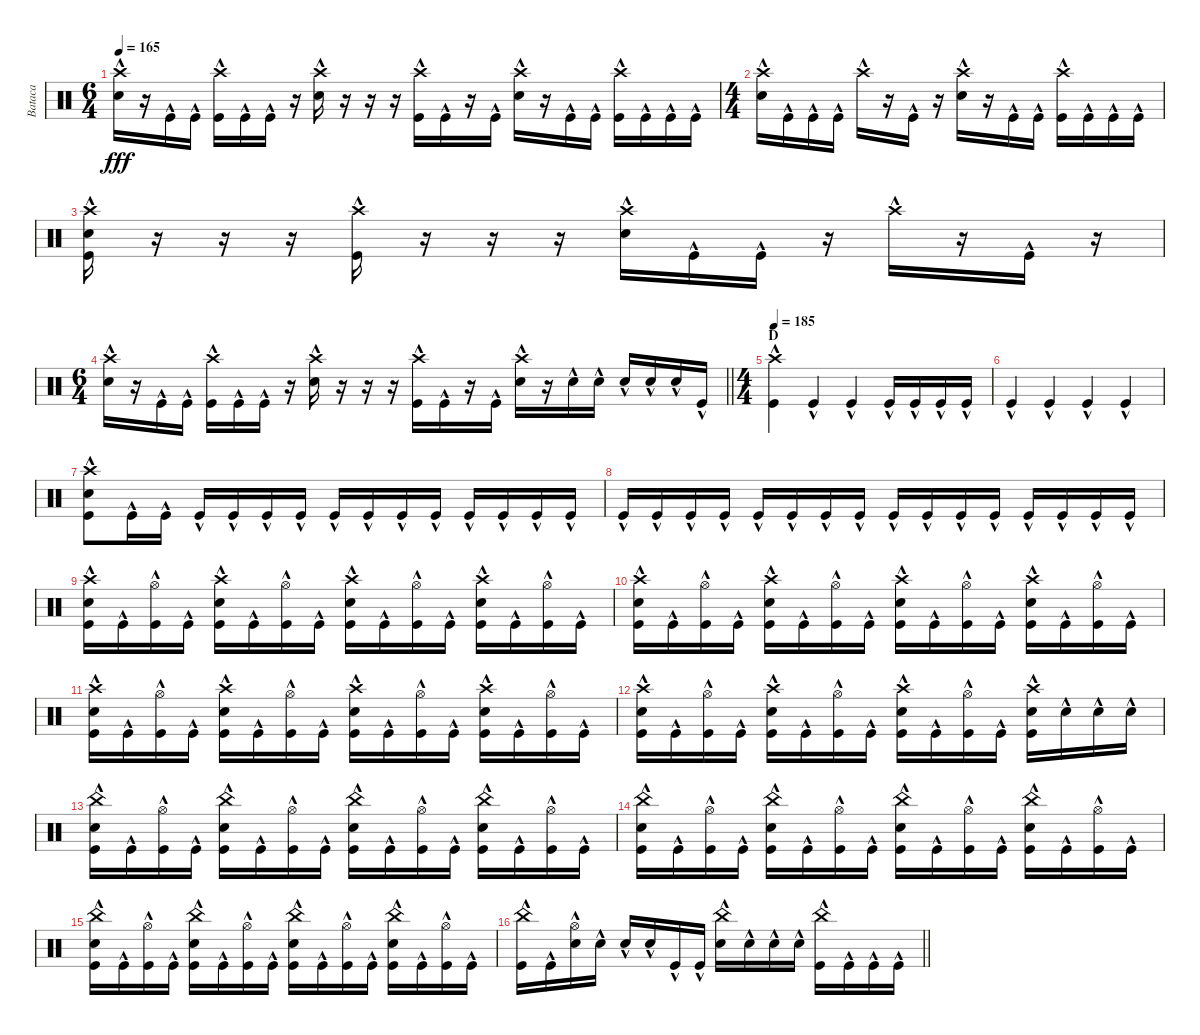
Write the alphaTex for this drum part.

\track ("Bataca" "Bataca") {instrument percussion}
\staff {score}
\articulation defaults
\ts (6 4)
\tempo 165
\clef neutral
\ks c
("Crash high (hit)"{hac} "Electric Snare (hit)"{hac}).16{dy fff} r.16 "Kick (hit)"{hac}.16 "Kick (hit)"{hac}.16 ("Crash high (hit)"{hac} "Kick (hit)"{hac}).16 "Kick (hit)"{hac}.16 "Kick (hit)"{hac}.16 r.16 ("Crash high (hit)"{hac} "Electric Snare (hit)"{hac}).16 r.16 r.16 r.16 ("Crash high (hit)"{hac} "Kick (hit)"{hac}).16 "Kick (hit)"{hac}.16 r.16 "Kick (hit)"{hac}.16 ("Crash high (hit)"{hac} "Electric Snare (hit)"{hac}).16 r.16 "Kick (hit)"{hac}.16 "Kick (hit)"{hac}.16 ("Crash high (hit)"{hac} "Kick (hit)"{hac}).16 "Kick (hit)"{hac}.16 "Kick (hit)"{hac}.16 "Kick (hit)"{hac}.16 |
\ts (4 4)
("Crash high (hit)"{hac} "Electric Snare (hit)"{hac}).16 "Kick (hit)"{hac}.16 "Kick (hit)"{hac}.16 "Kick (hit)"{hac}.16 "Crash high (hit)"{hac}.16 r.16 "Kick (hit)"{hac}.16 r.16 ("Crash high (hit)"{hac} "Electric Snare (hit)"{hac}).16 r.16 "Kick (hit)"{hac}.16 "Kick (hit)"{hac}.16 ("Crash high (hit)"{hac} "Kick (hit)"{hac}).16 "Kick (hit)"{hac}.16 "Kick (hit)"{hac}.16 "Kick (hit)"{hac}.16 |
("Crash high (hit)"{hac} "Electric Snare (hit)"{hac} "Kick (hit)"{hac}).16 r.16 r.16 r.16 ("Crash high (hit)"{hac} "Kick (hit)"{hac}).16 r.16 r.16 r.16 ("Crash high (hit)"{hac} "Electric Snare (hit)"{hac}).16 "Kick (hit)"{hac}.16 "Kick (hit)"{hac}.16 r.16 "Crash high (hit)"{hac}.16 r.16 "Kick (hit)"{hac}.16 r.16 |
\ts (6 4)
\barLineRight lightlight
("Crash high (hit)"{hac} "Electric Snare (hit)"{hac}).16 r.16 "Kick (hit)"{hac}.16 "Kick (hit)"{hac}.16 ("Crash high (hit)"{hac} "Kick (hit)"{hac}).16 "Kick (hit)"{hac}.16 "Kick (hit)"{hac}.16 r.16 ("Crash high (hit)"{hac} "Electric Snare (hit)"{hac}).16 r.16 r.16 r.16 ("Crash high (hit)"{hac} "Kick (hit)"{hac}).16 "Kick (hit)"{hac}.16 r.16 "Kick (hit)"{hac}.16 ("Crash high (hit)"{hac} "Electric Snare (hit)"{hac}).16 r.16 "Electric Snare (hit)"{hac}.16 "Electric Snare (hit)"{hac}.16 "Electric Snare (hit)"{hac}.16 "Electric Snare (hit)"{hac}.16 "Electric Snare (hit)"{hac}.16 "Kick (hit)"{hac}.16 |
\ts (4 4)
\section ("" "D")
\tempo 185
("Crash high (hit)"{hac} "Kick (hit)"{hac}).4 "Kick (hit)"{hac}.4 "Kick (hit)"{hac}.4 "Kick (hit)"{hac}.16 "Kick (hit)"{hac}.16 "Kick (hit)"{hac}.16 "Kick (hit)"{hac}.16 |
"Kick (hit)"{hac}.4 "Kick (hit)"{hac}.4 "Kick (hit)"{hac}.4 "Kick (hit)"{hac}.4 |
("Crash high (hit)"{hac} "Electric Snare (hit)"{hac} "Kick (hit)"{hac}).8 "Kick (hit)"{hac}.16 "Kick (hit)"{hac}.16 "Kick (hit)"{hac}.16 "Kick (hit)"{hac}.16 "Kick (hit)"{hac}.16 "Kick (hit)"{hac}.16 "Kick (hit)"{hac}.16 "Kick (hit)"{hac}.16 "Kick (hit)"{hac}.16 "Kick (hit)"{hac}.16 "Kick (hit)"{hac}.16 "Kick (hit)"{hac}.16 "Kick (hit)"{hac}.16 "Kick (hit)"{hac}.16 |
"Kick (hit)"{hac}.16 "Kick (hit)"{hac}.16 "Kick (hit)"{hac}.16 "Kick (hit)"{hac}.16 "Kick (hit)"{hac}.16 "Kick (hit)"{hac}.16 "Kick (hit)"{hac}.16 "Kick (hit)"{hac}.16 "Kick (hit)"{hac}.16 "Kick (hit)"{hac}.16 "Kick (hit)"{hac}.16 "Kick (hit)"{hac}.16 "Kick (hit)"{hac}.16 "Kick (hit)"{hac}.16 "Kick (hit)"{hac}.16 "Kick (hit)"{hac}.16 |
("Crash high (hit)"{hac} "Electric Snare (hit)"{hac} "Kick (hit)"{hac}).16 "Kick (hit)"{hac}.16 ("Hi-Hat (open)"{hac} "Kick (hit)"{hac}).16 "Kick (hit)"{hac}.16 ("Crash high (hit)"{hac} "Electric Snare (hit)"{hac} "Kick (hit)"{hac}).16 "Kick (hit)"{hac}.16 ("Hi-Hat (open)"{hac} "Kick (hit)"{hac}).16 "Kick (hit)"{hac}.16 ("Crash high (hit)"{hac} "Electric Snare (hit)"{hac} "Kick (hit)"{hac}).16 "Kick (hit)"{hac}.16 ("Hi-Hat (open)"{hac} "Kick (hit)"{hac}).16 "Kick (hit)"{hac}.16 ("Crash high (hit)"{hac} "Electric Snare (hit)"{hac} "Kick (hit)"{hac}).16 "Kick (hit)"{hac}.16 ("Hi-Hat (open)"{hac} "Kick (hit)"{hac}).16 "Kick (hit)"{hac}.16 |
("Crash high (hit)"{hac} "Electric Snare (hit)"{hac} "Kick (hit)"{hac}).16 "Kick (hit)"{hac}.16 ("Hi-Hat (open)"{hac} "Kick (hit)"{hac}).16 "Kick (hit)"{hac}.16 ("Crash high (hit)"{hac} "Electric Snare (hit)"{hac} "Kick (hit)"{hac}).16 "Kick (hit)"{hac}.16 ("Hi-Hat (open)"{hac} "Kick (hit)"{hac}).16 "Kick (hit)"{hac}.16 ("Crash high (hit)"{hac} "Electric Snare (hit)"{hac} "Kick (hit)"{hac}).16 "Kick (hit)"{hac}.16 ("Hi-Hat (open)"{hac} "Kick (hit)"{hac}).16 "Kick (hit)"{hac}.16 ("Crash high (hit)"{hac} "Electric Snare (hit)"{hac} "Kick (hit)"{hac}).16 "Kick (hit)"{hac}.16 ("Hi-Hat (open)"{hac} "Kick (hit)"{hac}).16 "Kick (hit)"{hac}.16 |
("Crash high (hit)"{hac} "Electric Snare (hit)"{hac} "Kick (hit)"{hac}).16 "Kick (hit)"{hac}.16 ("Hi-Hat (open)"{hac} "Kick (hit)"{hac}).16 "Kick (hit)"{hac}.16 ("Crash high (hit)"{hac} "Electric Snare (hit)"{hac} "Kick (hit)"{hac}).16 "Kick (hit)"{hac}.16 ("Hi-Hat (open)"{hac} "Kick (hit)"{hac}).16 "Kick (hit)"{hac}.16 ("Crash high (hit)"{hac} "Electric Snare (hit)"{hac} "Kick (hit)"{hac}).16 "Kick (hit)"{hac}.16 ("Hi-Hat (open)"{hac} "Kick (hit)"{hac}).16 "Kick (hit)"{hac}.16 ("Crash high (hit)"{hac} "Electric Snare (hit)"{hac} "Kick (hit)"{hac}).16 "Kick (hit)"{hac}.16 ("Hi-Hat (open)"{hac} "Kick (hit)"{hac}).16 "Kick (hit)"{hac}.16 |
("Crash high (hit)"{hac} "Electric Snare (hit)"{hac} "Kick (hit)"{hac}).16 "Kick (hit)"{hac}.16 ("Hi-Hat (open)"{hac} "Kick (hit)"{hac}).16 "Kick (hit)"{hac}.16 ("Crash high (hit)"{hac} "Electric Snare (hit)"{hac} "Kick (hit)"{hac}).16 "Kick (hit)"{hac}.16 ("Hi-Hat (open)"{hac} "Kick (hit)"{hac}).16 "Kick (hit)"{hac}.16 ("Crash high (hit)"{hac} "Electric Snare (hit)"{hac} "Kick (hit)"{hac}).16 "Kick (hit)"{hac}.16 ("Hi-Hat (open)"{hac} "Kick (hit)"{hac}).16 "Kick (hit)"{hac}.16 ("Crash high (hit)"{hac} "Electric Snare (hit)"{hac} "Kick (hit)"{hac}).16 "Electric Snare (hit)"{hac}.16 "Electric Snare (hit)"{hac}.16 "Electric Snare (hit)"{hac}.16 |
("China (hit)"{hac} "Electric Snare (hit)"{hac} "Kick (hit)"{hac}).16 "Kick (hit)"{hac}.16 ("Hi-Hat (open)"{hac} "Kick (hit)"{hac}).16 "Kick (hit)"{hac}.16 ("China (hit)"{hac} "Electric Snare (hit)"{hac} "Kick (hit)"{hac}).16 "Kick (hit)"{hac}.16 ("Hi-Hat (open)"{hac} "Kick (hit)"{hac}).16 "Kick (hit)"{hac}.16 ("China (hit)"{hac} "Electric Snare (hit)"{hac} "Kick (hit)"{hac}).16 "Kick (hit)"{hac}.16 ("Hi-Hat (open)"{hac} "Kick (hit)"{hac}).16 "Kick (hit)"{hac}.16 ("China (hit)"{hac} "Electric Snare (hit)"{hac} "Kick (hit)"{hac}).16 "Kick (hit)"{hac}.16 ("Hi-Hat (open)"{hac} "Kick (hit)"{hac}).16 "Kick (hit)"{hac}.16 |
("China (hit)"{hac} "Electric Snare (hit)"{hac} "Kick (hit)"{hac}).16 "Kick (hit)"{hac}.16 ("Hi-Hat (open)"{hac} "Kick (hit)"{hac}).16 "Kick (hit)"{hac}.16 ("China (hit)"{hac} "Electric Snare (hit)"{hac} "Kick (hit)"{hac}).16 "Kick (hit)"{hac}.16 ("Hi-Hat (open)"{hac} "Kick (hit)"{hac}).16 "Kick (hit)"{hac}.16 ("China (hit)"{hac} "Electric Snare (hit)"{hac} "Kick (hit)"{hac}).16 "Kick (hit)"{hac}.16 ("Hi-Hat (open)"{hac} "Kick (hit)"{hac}).16 "Kick (hit)"{hac}.16 ("China (hit)"{hac} "Electric Snare (hit)"{hac} "Kick (hit)"{hac}).16 "Kick (hit)"{hac}.16 ("Hi-Hat (open)"{hac} "Kick (hit)"{hac}).16 "Kick (hit)"{hac}.16 |
("China (hit)"{hac} "Electric Snare (hit)"{hac} "Kick (hit)"{hac}).16 "Kick (hit)"{hac}.16 ("Hi-Hat (open)"{hac} "Kick (hit)"{hac}).16 "Kick (hit)"{hac}.16 ("China (hit)"{hac} "Electric Snare (hit)"{hac} "Kick (hit)"{hac}).16 "Kick (hit)"{hac}.16 ("Hi-Hat (open)"{hac} "Kick (hit)"{hac}).16 "Kick (hit)"{hac}.16 ("China (hit)"{hac} "Electric Snare (hit)"{hac} "Kick (hit)"{hac}).16 "Kick (hit)"{hac}.16 ("Hi-Hat (open)"{hac} "Kick (hit)"{hac}).16 "Kick (hit)"{hac}.16 ("China (hit)"{hac} "Electric Snare (hit)"{hac} "Kick (hit)"{hac}).16 "Kick (hit)"{hac}.16 ("Hi-Hat (open)"{hac} "Kick (hit)"{hac}).16 "Kick (hit)"{hac}.16 |
\barLineRight lightlight
("China (hit)"{hac} "Kick (hit)"{hac}).16 "Kick (hit)"{hac}.16 ("Hi-Hat (open)"{hac} "Electric Snare (hit)"{hac}).16 "Electric Snare (hit)"{hac}.16 "Electric Snare (hit)"{hac}.16 "Electric Snare (hit)"{hac}.16 "Kick (hit)"{hac}.16 "Kick (hit)"{hac}.16 ("China (hit)"{hac} "Electric Snare (hit)"{hac}).16 "Electric Snare (hit)"{hac}.16 "Electric Snare (hit)"{hac}.16 "Electric Snare (hit)"{hac}.16 ("China (hit)"{hac} "Kick (hit)"{hac}).16 "Kick (hit)"{hac}.16 "Kick (hit)"{hac}.16 "Kick (hit)"{hac}.16
